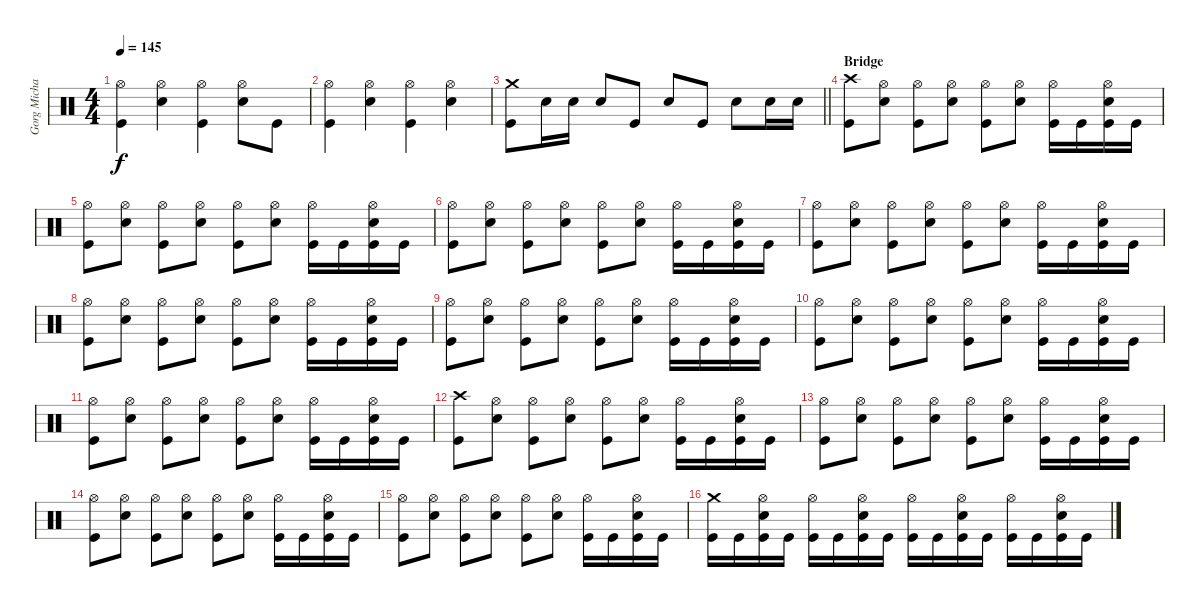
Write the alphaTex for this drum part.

\track ("Gorg Michael" "Gorg Micha") {instrument percussion}
\staff {score}
\articulation defaults
\ts (4 4)
\tempo 145
\clef neutral
\ks c
("Hi-Hat (open)" "Kick (hit)").4{dy f} ("Hi-Hat (open)" "Snare (hit) 2").4 ("Hi-Hat (open)" "Kick (hit)").4 ("Hi-Hat (open)" "Snare (hit) 2").8 "Kick (hit)".8 |
("Hi-Hat (open)" "Kick (hit)").4 ("Hi-Hat (open)" "Snare (hit) 2").4 ("Hi-Hat (open)" "Kick (hit)").4 ("Hi-Hat (open)" "Snare (hit) 2").4 |
\barLineRight lightlight
("Crash medium (hit)" "Kick (hit)").8 "Snare (hit) 2".16 "Snare (hit) 2".16 "Snare (hit) 2".8 "Kick (hit)".8 "Snare (hit) 2".8 "Kick (hit)".8 "Snare (hit) 2".8 "Snare (hit) 2".16 "Snare (hit) 2".16 |
\section ("" "Bridge")
("Crash high (hit)" "Kick (hit)").8 ("Hi-Hat (open)" "Snare (hit) 2").8 ("Hi-Hat (open)" "Kick (hit)").8 ("Hi-Hat (open)" "Snare (hit) 2").8 ("Hi-Hat (open)" "Kick (hit)").8 ("Hi-Hat (open)" "Snare (hit) 2").8 ("Hi-Hat (open)" "Kick (hit)").16 "Kick (hit)".16 ("Hi-Hat (open)" "Snare (hit) 2" "Kick (hit)").16 "Kick (hit)".16 |
("Hi-Hat (open)" "Kick (hit)").8 ("Hi-Hat (open)" "Snare (hit) 2").8 ("Hi-Hat (open)" "Kick (hit)").8 ("Hi-Hat (open)" "Snare (hit) 2").8 ("Hi-Hat (open)" "Kick (hit)").8 ("Hi-Hat (open)" "Snare (hit) 2").8 ("Hi-Hat (open)" "Kick (hit)").16 "Kick (hit)".16 ("Hi-Hat (open)" "Snare (hit) 2" "Kick (hit)").16 "Kick (hit)".16 |
("Hi-Hat (open)" "Kick (hit)").8 ("Hi-Hat (open)" "Snare (hit) 2").8 ("Hi-Hat (open)" "Kick (hit)").8 ("Hi-Hat (open)" "Snare (hit) 2").8 ("Hi-Hat (open)" "Kick (hit)").8 ("Hi-Hat (open)" "Snare (hit) 2").8 ("Hi-Hat (open)" "Kick (hit)").16 "Kick (hit)".16 ("Hi-Hat (open)" "Snare (hit) 2" "Kick (hit)").16 "Kick (hit)".16 |
("Hi-Hat (open)" "Kick (hit)").8 ("Hi-Hat (open)" "Snare (hit) 2").8 ("Hi-Hat (open)" "Kick (hit)").8 ("Hi-Hat (open)" "Snare (hit) 2").8 ("Hi-Hat (open)" "Kick (hit)").8 ("Hi-Hat (open)" "Snare (hit) 2").8 ("Hi-Hat (open)" "Kick (hit)").16 "Kick (hit)".16 ("Hi-Hat (open)" "Snare (hit) 2" "Kick (hit)").16 "Kick (hit)".16 |
("Hi-Hat (open)" "Kick (hit)").8 ("Hi-Hat (open)" "Snare (hit) 2").8 ("Hi-Hat (open)" "Kick (hit)").8 ("Hi-Hat (open)" "Snare (hit) 2").8 ("Hi-Hat (open)" "Kick (hit)").8 ("Hi-Hat (open)" "Snare (hit) 2").8 ("Hi-Hat (open)" "Kick (hit)").16 "Kick (hit)".16 ("Hi-Hat (open)" "Snare (hit) 2" "Kick (hit)").16 "Kick (hit)".16 |
("Hi-Hat (open)" "Kick (hit)").8 ("Hi-Hat (open)" "Snare (hit) 2").8 ("Hi-Hat (open)" "Kick (hit)").8 ("Hi-Hat (open)" "Snare (hit) 2").8 ("Hi-Hat (open)" "Kick (hit)").8 ("Hi-Hat (open)" "Snare (hit) 2").8 ("Hi-Hat (open)" "Kick (hit)").16 "Kick (hit)".16 ("Hi-Hat (open)" "Snare (hit) 2" "Kick (hit)").16 "Kick (hit)".16 |
("Hi-Hat (open)" "Kick (hit)").8 ("Hi-Hat (open)" "Snare (hit) 2").8 ("Hi-Hat (open)" "Kick (hit)").8 ("Hi-Hat (open)" "Snare (hit) 2").8 ("Hi-Hat (open)" "Kick (hit)").8 ("Hi-Hat (open)" "Snare (hit) 2").8 ("Hi-Hat (open)" "Kick (hit)").16 "Kick (hit)".16 ("Hi-Hat (open)" "Snare (hit) 2" "Kick (hit)").16 "Kick (hit)".16 |
("Hi-Hat (open)" "Kick (hit)").8 ("Hi-Hat (open)" "Snare (hit) 2").8 ("Hi-Hat (open)" "Kick (hit)").8 ("Hi-Hat (open)" "Snare (hit) 2").8 ("Hi-Hat (open)" "Kick (hit)").8 ("Hi-Hat (open)" "Snare (hit) 2").8 ("Hi-Hat (open)" "Kick (hit)").16 "Kick (hit)".16 ("Hi-Hat (open)" "Snare (hit) 2" "Kick (hit)").16 "Kick (hit)".16 |
("Crash high (hit)" "Kick (hit)").8 ("Hi-Hat (open)" "Snare (hit) 2").8 ("Hi-Hat (open)" "Kick (hit)").8 ("Hi-Hat (open)" "Snare (hit) 2").8 ("Hi-Hat (open)" "Kick (hit)").8 ("Hi-Hat (open)" "Snare (hit) 2").8 ("Hi-Hat (open)" "Kick (hit)").16 "Kick (hit)".16 ("Hi-Hat (open)" "Snare (hit) 2" "Kick (hit)").16 "Kick (hit)".16 |
("Hi-Hat (open)" "Kick (hit)").8 ("Hi-Hat (open)" "Snare (hit) 2").8 ("Hi-Hat (open)" "Kick (hit)").8 ("Hi-Hat (open)" "Snare (hit) 2").8 ("Hi-Hat (open)" "Kick (hit)").8 ("Hi-Hat (open)" "Snare (hit) 2").8 ("Hi-Hat (open)" "Kick (hit)").16 "Kick (hit)".16 ("Hi-Hat (open)" "Snare (hit) 2" "Kick (hit)").16 "Kick (hit)".16 |
("Hi-Hat (open)" "Kick (hit)").8 ("Hi-Hat (open)" "Snare (hit) 2").8 ("Hi-Hat (open)" "Kick (hit)").8 ("Hi-Hat (open)" "Snare (hit) 2").8 ("Hi-Hat (open)" "Kick (hit)").8 ("Hi-Hat (open)" "Snare (hit) 2").8 ("Hi-Hat (open)" "Kick (hit)").16 "Kick (hit)".16 ("Hi-Hat (open)" "Snare (hit) 2" "Kick (hit)").16 "Kick (hit)".16 |
("Hi-Hat (open)" "Kick (hit)").8 ("Hi-Hat (open)" "Snare (hit) 2").8 ("Hi-Hat (open)" "Kick (hit)").8 ("Hi-Hat (open)" "Snare (hit) 2").8 ("Hi-Hat (open)" "Kick (hit)").8 ("Hi-Hat (open)" "Snare (hit) 2").8 ("Hi-Hat (open)" "Kick (hit)").16 "Kick (hit)".16 ("Hi-Hat (open)" "Snare (hit) 2" "Kick (hit)").16 "Kick (hit)".16 |
("Crash medium (hit)" "Kick (hit)").16 "Kick (hit)".16 ("Hi-Hat (open)" "Snare (hit) 2" "Kick (hit)").16 "Kick (hit)".16 ("Hi-Hat (open)" "Kick (hit)").16 "Kick (hit)".16 ("Hi-Hat (open)" "Snare (hit) 2" "Kick (hit)").16 "Kick (hit)".16 ("Hi-Hat (open)" "Kick (hit)").16 "Kick (hit)".16 ("Hi-Hat (open)" "Snare (hit) 2" "Kick (hit)").16 "Kick (hit)".16 ("Hi-Hat (open)" "Kick (hit)").16 "Kick (hit)".16 ("Hi-Hat (open)" "Snare (hit) 2" "Kick (hit)").16 "Kick (hit)".16
